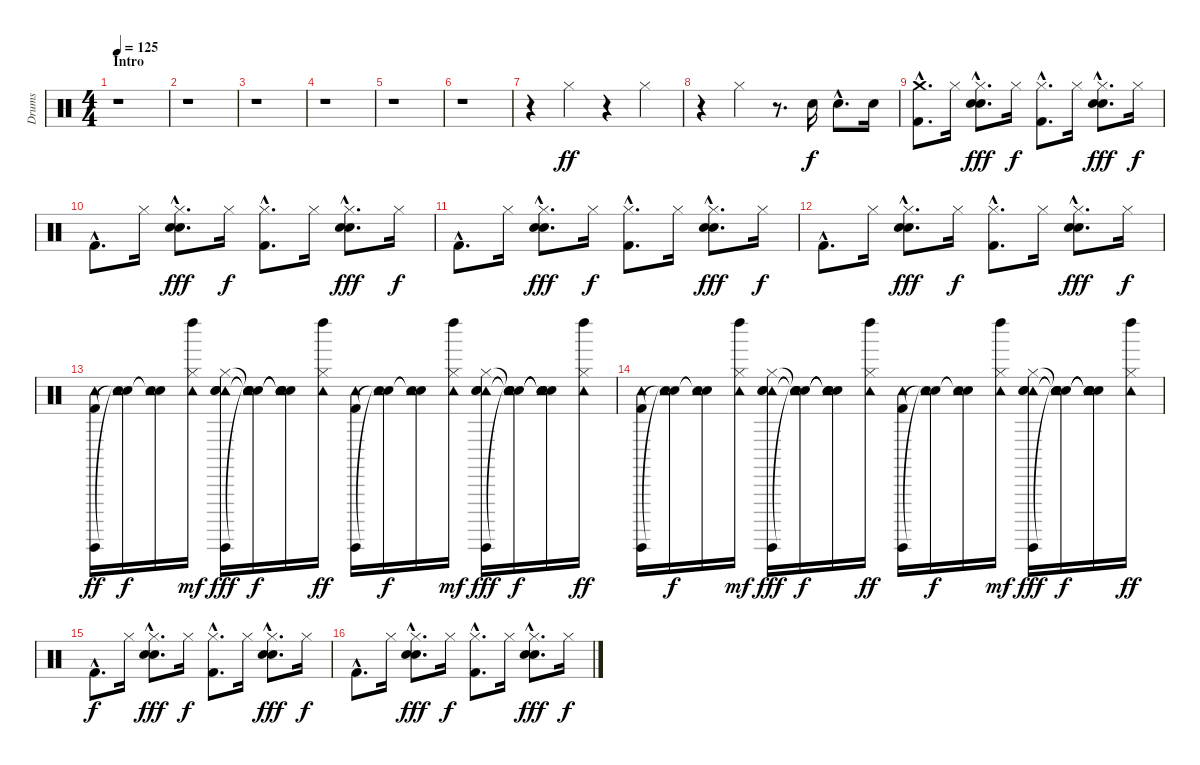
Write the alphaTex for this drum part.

\track ("Drums" "Drums") {instrument percussion}
\staff {score}
\articulation defaults
\ts (4 4)
\section ("" "Intro                                                                                               ")
\tempo 125
\clef neutral
\ks c
r.1{dy ff} |
r.1 |
r.1 |
r.1 |
r.1 |
r.1 |
r.4 "Hi-Hat (closed)".4 r.4 "Hi-Hat (closed)".4 |
r.4 "Hi-Hat (closed)".4 r.8{d} "Snare (hit) 2".16{dy f} "Snare (hit) 2"{hac}.8{d} "Snare (hit) 2".16 |
("Crash medium (hit)"{hac} "Kick (hit) 2"{hac}).8{d} "Hi-Hat (closed)".16 ("Hand Clap (hit)"{hac} "Hi-Hat (closed)"{hac} "Snare (hit) 2"{hac}).8{d dy fff} "Hi-Hat (closed)".16{dy f} ("Hi-Hat (closed)"{hac} "Kick (hit) 2"{hac}).8{d} "Hi-Hat (closed)".16 ("Hand Clap (hit)"{hac} "Hi-Hat (closed)"{hac} "Snare (hit) 2"{hac}).8{d dy fff} "Hi-Hat (closed)".16{dy f} |
"Kick (hit) 2"{hac}.8{d} "Hi-Hat (closed)".16 ("Hand Clap (hit)"{hac} "Hi-Hat (closed)"{hac} "Snare (hit) 2"{hac}).8{d dy fff} "Hi-Hat (closed)".16{dy f} ("Hi-Hat (closed)"{hac} "Kick (hit) 2"{hac}).8{d} "Hi-Hat (closed)".16 ("Hand Clap (hit)"{hac} "Hi-Hat (closed)"{hac} "Snare (hit) 2"{hac}).8{d dy fff} "Hi-Hat (closed)".16{dy f} |
"Kick (hit) 2"{hac}.8{d} "Hi-Hat (closed)".16 ("Hand Clap (hit)"{hac} "Hi-Hat (closed)"{hac} "Snare (hit) 2"{hac}).8{d dy fff} "Hi-Hat (closed)".16{dy f} ("Hi-Hat (closed)"{hac} "Kick (hit) 2"{hac}).8{d} "Hi-Hat (closed)".16 ("Hand Clap (hit)"{hac} "Hi-Hat (closed)"{hac} "Snare (hit) 2"{hac}).8{d dy fff} "Hi-Hat (closed)".16{dy f} |
"Kick (hit) 2"{hac}.8{d} "Hi-Hat (closed)".16 ("Hand Clap (hit)"{hac} "Hi-Hat (closed)"{hac} "Snare (hit) 2"{hac}).8{d dy fff} "Hi-Hat (closed)".16{dy f} ("Hi-Hat (closed)"{hac} "Kick (hit) 2"{hac}).8{d} "Hi-Hat (closed)".16 ("Hand Clap (hit)"{hac} "Hi-Hat (closed)"{hac} "Snare (hit) 2"{hac}).8{d dy fff} "Hi-Hat (closed)".16{dy f} |
("Guiro (hit)" "Tambourine (hit)" "Kick (hit) 2").16{dy ff} ("Snare (hit)"{t} "Tambourine (hit)" "Snare (hit)"{t}).16{dy f} ("Snare (hit)"{t} "Tambourine (hit)" "Snare (hit)"{t}).16 ("Left Maraca (hit)" "Tambourine (hit)" "Hi-Hat (closed)").16{dy mf} ("Guiro (hit)" "Tambourine (hit)" "Hi-Hat (closed)" "Hand Clap (hit)" "Snare (hit) 2").16{dy fff} ("Snare (hit)"{t} "Tambourine (hit)" "Snare (hit)"{t} "Snare (hit)"{t} "Snare (hit)"{t}).16{dy f} ("Snare (hit)"{t} "Tambourine (hit)" "Snare (hit)"{t} "Snare (hit)"{t} "Snare (hit)"{t}).16 ("Left Maraca (hit)" "Tambourine (hit)" "Hi-Hat (closed)").16{dy ff} ("Guiro (hit)" "Tambourine (hit)" "Kick (hit) 2").16 ("Snare (hit)"{t} "Tambourine (hit)" "Snare (hit)"{t}).16{dy f} ("Snare (hit)"{t} "Tambourine (hit)" "Snare (hit)"{t}).16 ("Left Maraca (hit)" "Tambourine (hit)" "Hi-Hat (closed)").16{dy mf} ("Guiro (hit)" "Tambourine (hit)" "Hi-Hat (closed)" "Hand Clap (hit)" "Snare (hit) 2").16{dy fff} ("Snare (hit)"{t} "Tambourine (hit)" "Snare (hit)"{t} "Snare (hit)"{t} "Snare (hit)"{t}).16{dy f} ("Snare (hit)"{t} "Tambourine (hit)" "Snare (hit)"{t} "Snare (hit)"{t} "Snare (hit)"{t}).16 ("Left Maraca (hit)" "Tambourine (hit)" "Hi-Hat (closed)").16{dy ff} |
("Guiro (hit)" "Tambourine (hit)" "Kick (hit) 2").16 ("Snare (hit)"{t} "Tambourine (hit)" "Snare (hit)"{t}).16{dy f} ("Snare (hit)"{t} "Tambourine (hit)" "Snare (hit)"{t}).16 ("Left Maraca (hit)" "Tambourine (hit)" "Hi-Hat (closed)").16{dy mf} ("Guiro (hit)" "Tambourine (hit)" "Hi-Hat (closed)" "Hand Clap (hit)" "Snare (hit) 2").16{dy fff} ("Snare (hit)"{t} "Tambourine (hit)" "Snare (hit)"{t} "Snare (hit)"{t} "Snare (hit)"{t}).16{dy f} ("Snare (hit)"{t} "Tambourine (hit)" "Snare (hit)"{t} "Snare (hit)"{t} "Snare (hit)"{t}).16 ("Left Maraca (hit)" "Tambourine (hit)" "Hi-Hat (closed)").16{dy ff} ("Guiro (hit)" "Tambourine (hit)" "Kick (hit) 2").16 ("Snare (hit)"{t} "Tambourine (hit)" "Snare (hit)"{t}).16{dy f} ("Snare (hit)"{t} "Tambourine (hit)" "Snare (hit)"{t}).16 ("Left Maraca (hit)" "Tambourine (hit)" "Hi-Hat (closed)").16{dy mf} ("Guiro (hit)" "Tambourine (hit)" "Hi-Hat (closed)" "Hand Clap (hit)" "Snare (hit) 2").16{dy fff} ("Snare (hit)"{t} "Tambourine (hit)" "Snare (hit)"{t} "Snare (hit)"{t} "Snare (hit)"{t}).16{dy f} ("Snare (hit)"{t} "Tambourine (hit)" "Snare (hit)"{t} "Snare (hit)"{t} "Snare (hit)"{t}).16 ("Left Maraca (hit)" "Tambourine (hit)" "Hi-Hat (closed)").16{dy ff} |
"Kick (hit) 2"{hac}.8{d dy f} "Hi-Hat (closed)".16 ("Hand Clap (hit)"{hac} "Hi-Hat (closed)"{hac} "Snare (hit) 2"{hac}).8{d dy fff} "Hi-Hat (closed)".16{dy f} ("Hi-Hat (closed)"{hac} "Kick (hit) 2"{hac}).8{d} "Hi-Hat (closed)".16 ("Hand Clap (hit)"{hac} "Hi-Hat (closed)"{hac} "Snare (hit) 2"{hac}).8{d dy fff} "Hi-Hat (closed)".16{dy f} |
"Kick (hit) 2"{hac}.8{d} "Hi-Hat (closed)".16 ("Hand Clap (hit)"{hac} "Hi-Hat (closed)"{hac} "Snare (hit) 2"{hac}).8{d dy fff} "Hi-Hat (closed)".16{dy f} ("Hi-Hat (closed)"{hac} "Kick (hit) 2"{hac}).8{d} "Hi-Hat (closed)".16 ("Hand Clap (hit)"{hac} "Hi-Hat (closed)"{hac} "Snare (hit) 2"{hac}).8{d dy fff} "Hi-Hat (closed)".16{dy f}
